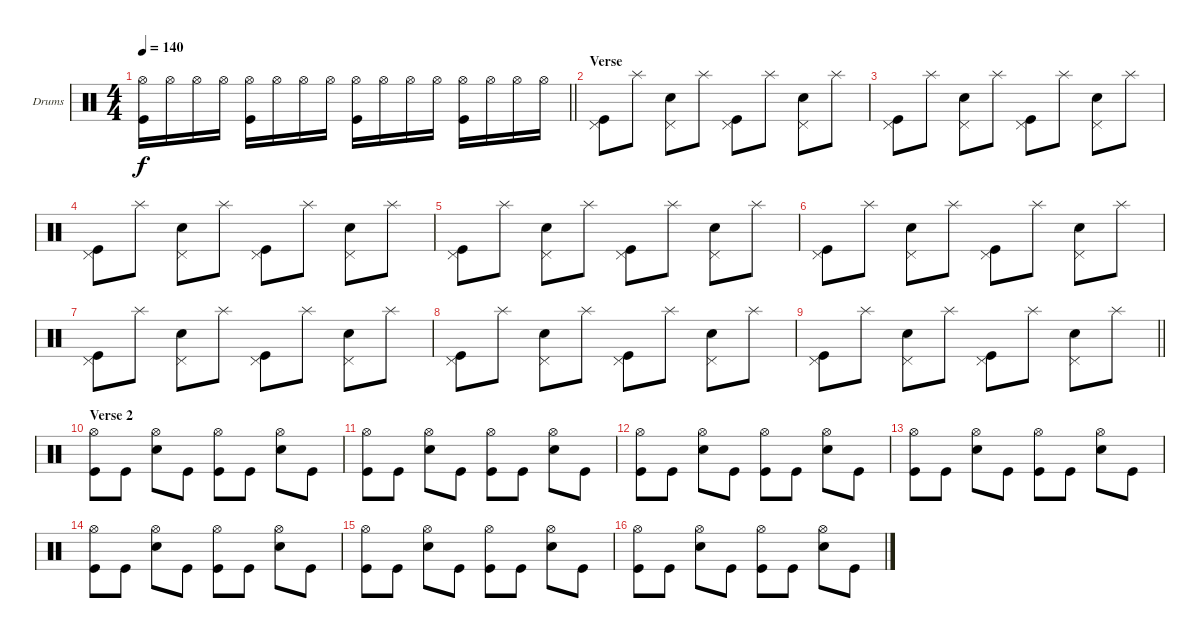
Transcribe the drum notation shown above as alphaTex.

\bracketExtendMode groupsimilarinstruments
\firstSystemTrackNameOrientation horizontal
\otherSystemsTrackNameOrientation horizontal
\track ("Dave McClain" "Drums") {instrument percussion}
\staff {score}
\articulation defaults
\ts (4 4)
\tempo 140
\clef neutral
\barLineRight lightlight
\ks c
("Hi-Hat (open)" "Kick (hit)").16{dy f} "Hi-Hat (open)".16 "Hi-Hat (open)".16 "Hi-Hat (open)".16 ("Hi-Hat (open)" "Kick (hit)").16 "Hi-Hat (open)".16 "Hi-Hat (open)".16 "Hi-Hat (open)".16 ("Hi-Hat (open)" "Kick (hit)").16 "Hi-Hat (open)".16 "Hi-Hat (open)".16 "Hi-Hat (open)".16 ("Hi-Hat (open)" "Kick (hit)").16 "Hi-Hat (open)".16 "Hi-Hat (open)".16 "Hi-Hat (open)".16 |
\section ("" "Verse")
("Pedal Hi-Hat (hit)" "Kick (hit)").8 "Splash (hit)".8 ("Pedal Hi-Hat (hit)" "Snare (hit) 2").8 "Splash (hit)".8 ("Pedal Hi-Hat (hit)" "Kick (hit)").8 "Splash (hit)".8 ("Pedal Hi-Hat (hit)" "Snare (hit) 2").8 "Splash (hit)".8 |
("Pedal Hi-Hat (hit)" "Kick (hit)").8 "Splash (hit)".8 ("Pedal Hi-Hat (hit)" "Snare (hit) 2").8 "Splash (hit)".8 ("Pedal Hi-Hat (hit)" "Kick (hit)").8 "Splash (hit)".8 ("Pedal Hi-Hat (hit)" "Snare (hit) 2").8 "Splash (hit)".8 |
("Pedal Hi-Hat (hit)" "Kick (hit)").8 "Splash (hit)".8 ("Pedal Hi-Hat (hit)" "Snare (hit) 2").8 "Splash (hit)".8 ("Pedal Hi-Hat (hit)" "Kick (hit)").8 "Splash (hit)".8 ("Pedal Hi-Hat (hit)" "Snare (hit) 2").8 "Splash (hit)".8 |
("Pedal Hi-Hat (hit)" "Kick (hit)").8 "Splash (hit)".8 ("Pedal Hi-Hat (hit)" "Snare (hit) 2").8 "Splash (hit)".8 ("Pedal Hi-Hat (hit)" "Kick (hit)").8 "Splash (hit)".8 ("Pedal Hi-Hat (hit)" "Snare (hit) 2").8 "Splash (hit)".8 |
("Pedal Hi-Hat (hit)" "Kick (hit)").8 "Splash (hit)".8 ("Pedal Hi-Hat (hit)" "Snare (hit) 2").8 "Splash (hit)".8 ("Pedal Hi-Hat (hit)" "Kick (hit)").8 "Splash (hit)".8 ("Pedal Hi-Hat (hit)" "Snare (hit) 2").8 "Splash (hit)".8 |
("Pedal Hi-Hat (hit)" "Kick (hit)").8 "Splash (hit)".8 ("Pedal Hi-Hat (hit)" "Snare (hit) 2").8 "Splash (hit)".8 ("Pedal Hi-Hat (hit)" "Kick (hit)").8 "Splash (hit)".8 ("Pedal Hi-Hat (hit)" "Snare (hit) 2").8 "Splash (hit)".8 |
("Pedal Hi-Hat (hit)" "Kick (hit)").8 "Splash (hit)".8 ("Pedal Hi-Hat (hit)" "Snare (hit) 2").8 "Splash (hit)".8 ("Pedal Hi-Hat (hit)" "Kick (hit)").8 "Splash (hit)".8 ("Pedal Hi-Hat (hit)" "Snare (hit) 2").8 "Splash (hit)".8 |
\barLineRight lightlight
("Pedal Hi-Hat (hit)" "Kick (hit)").8 "Splash (hit)".8 ("Pedal Hi-Hat (hit)" "Snare (hit) 2").8 "Splash (hit)".8 ("Pedal Hi-Hat (hit)" "Kick (hit)").8 "Splash (hit)".8 ("Pedal Hi-Hat (hit)" "Snare (hit) 2").8 "Splash (hit)".8 |
\section ("" "Verse 2")
("Hi-Hat (open)" "Kick (hit)").8 "Kick (hit)".8 ("Hi-Hat (open)" "Snare (hit) 2").8 "Kick (hit)".8 ("Hi-Hat (open)" "Kick (hit)").8 "Kick (hit)".8 ("Hi-Hat (open)" "Snare (hit) 2").8 "Kick (hit)".8 |
("Hi-Hat (open)" "Kick (hit)").8 "Kick (hit)".8 ("Hi-Hat (open)" "Snare (hit) 2").8 "Kick (hit)".8 ("Hi-Hat (open)" "Kick (hit)").8 "Kick (hit)".8 ("Hi-Hat (open)" "Snare (hit) 2").8 "Kick (hit)".8 |
("Hi-Hat (open)" "Kick (hit)").8 "Kick (hit)".8 ("Hi-Hat (open)" "Snare (hit) 2").8 "Kick (hit)".8 ("Hi-Hat (open)" "Kick (hit)").8 "Kick (hit)".8 ("Hi-Hat (open)" "Snare (hit) 2").8 "Kick (hit)".8 |
("Hi-Hat (open)" "Kick (hit)").8 "Kick (hit)".8 ("Hi-Hat (open)" "Snare (hit) 2").8 "Kick (hit)".8 ("Hi-Hat (open)" "Kick (hit)").8 "Kick (hit)".8 ("Hi-Hat (open)" "Snare (hit) 2").8 "Kick (hit)".8 |
("Hi-Hat (open)" "Kick (hit)").8 "Kick (hit)".8 ("Hi-Hat (open)" "Snare (hit) 2").8 "Kick (hit)".8 ("Hi-Hat (open)" "Kick (hit)").8 "Kick (hit)".8 ("Hi-Hat (open)" "Snare (hit) 2").8 "Kick (hit)".8 |
("Hi-Hat (open)" "Kick (hit)").8 "Kick (hit)".8 ("Hi-Hat (open)" "Snare (hit) 2").8 "Kick (hit)".8 ("Hi-Hat (open)" "Kick (hit)").8 "Kick (hit)".8 ("Hi-Hat (open)" "Snare (hit) 2").8 "Kick (hit)".8 |
("Hi-Hat (open)" "Kick (hit)").8 "Kick (hit)".8 ("Hi-Hat (open)" "Snare (hit) 2").8 "Kick (hit)".8 ("Hi-Hat (open)" "Kick (hit)").8 "Kick (hit)".8 ("Hi-Hat (open)" "Snare (hit) 2").8 "Kick (hit)".8
